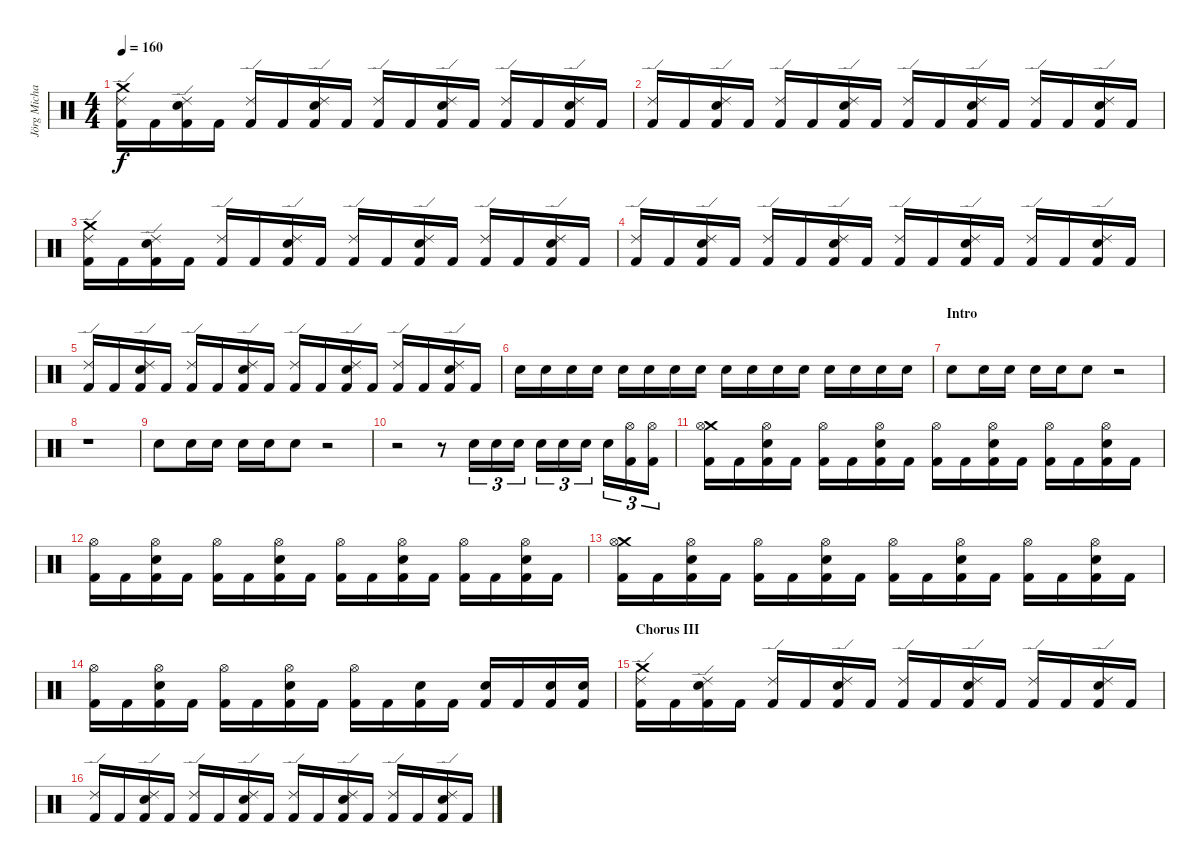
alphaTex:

\track ("Jörg Michael" "Jörg Micha") {instrument percussion}
\staff {score}
\articulation defaults
\ts (4 4)
\tempo 160
\clef neutral
\ks c
("Crash medium (hit)" "Ride (edge) 2" "Kick (hit) 2").16{dy f} "Kick (hit) 2".16 ("Electric Snare (hit)" "Ride (edge) 2" "Kick (hit) 2").16 "Kick (hit) 2".16 ("Ride (edge) 2" "Kick (hit) 2").16 "Kick (hit) 2".16 ("Electric Snare (hit)" "Ride (edge) 2" "Kick (hit) 2").16 "Kick (hit) 2".16 ("Ride (edge) 2" "Kick (hit) 2").16 "Kick (hit) 2".16 ("Electric Snare (hit)" "Ride (edge) 2" "Kick (hit) 2").16 "Kick (hit) 2".16 ("Ride (edge) 2" "Kick (hit) 2").16 "Kick (hit) 2".16 ("Electric Snare (hit)" "Ride (edge) 2" "Kick (hit) 2").16 "Kick (hit) 2".16 |
("Ride (edge) 2" "Kick (hit) 2").16 "Kick (hit) 2".16 ("Electric Snare (hit)" "Ride (edge) 2" "Kick (hit) 2").16 "Kick (hit) 2".16 ("Ride (edge) 2" "Kick (hit) 2").16 "Kick (hit) 2".16 ("Electric Snare (hit)" "Ride (edge) 2" "Kick (hit) 2").16 "Kick (hit) 2".16 ("Ride (edge) 2" "Kick (hit) 2").16 "Kick (hit) 2".16 ("Electric Snare (hit)" "Ride (edge) 2" "Kick (hit) 2").16 "Kick (hit) 2".16 ("Ride (edge) 2" "Kick (hit) 2").16 "Kick (hit) 2".16 ("Electric Snare (hit)" "Ride (edge) 2" "Kick (hit) 2").16 "Kick (hit) 2".16 |
("Crash medium (hit)" "Ride (edge) 2" "Kick (hit) 2").16 "Kick (hit) 2".16 ("Electric Snare (hit)" "Ride (edge) 2" "Kick (hit) 2").16 "Kick (hit) 2".16 ("Ride (edge) 2" "Kick (hit) 2").16 "Kick (hit) 2".16 ("Electric Snare (hit)" "Ride (edge) 2" "Kick (hit) 2").16 "Kick (hit) 2".16 ("Ride (edge) 2" "Kick (hit) 2").16 "Kick (hit) 2".16 ("Electric Snare (hit)" "Ride (edge) 2" "Kick (hit) 2").16 "Kick (hit) 2".16 ("Ride (edge) 2" "Kick (hit) 2").16 "Kick (hit) 2".16 ("Electric Snare (hit)" "Ride (edge) 2" "Kick (hit) 2").16 "Kick (hit) 2".16 |
("Ride (edge) 2" "Kick (hit) 2").16 "Kick (hit) 2".16 ("Electric Snare (hit)" "Ride (edge) 2" "Kick (hit) 2").16 "Kick (hit) 2".16 ("Ride (edge) 2" "Kick (hit) 2").16 "Kick (hit) 2".16 ("Electric Snare (hit)" "Ride (edge) 2" "Kick (hit) 2").16 "Kick (hit) 2".16 ("Ride (edge) 2" "Kick (hit) 2").16 "Kick (hit) 2".16 ("Electric Snare (hit)" "Ride (edge) 2" "Kick (hit) 2").16 "Kick (hit) 2".16 ("Ride (edge) 2" "Kick (hit) 2").16 "Kick (hit) 2".16 ("Electric Snare (hit)" "Ride (edge) 2" "Kick (hit) 2").16 "Kick (hit) 2".16 |
("Ride (edge) 2" "Kick (hit) 2").16 "Kick (hit) 2".16 ("Electric Snare (hit)" "Ride (edge) 2" "Kick (hit) 2").16 "Kick (hit) 2".16 ("Ride (edge) 2" "Kick (hit) 2").16 "Kick (hit) 2".16 ("Electric Snare (hit)" "Ride (edge) 2" "Kick (hit) 2").16 "Kick (hit) 2".16 ("Ride (edge) 2" "Kick (hit) 2").16 "Kick (hit) 2".16 ("Electric Snare (hit)" "Ride (edge) 2" "Kick (hit) 2").16 "Kick (hit) 2".16 ("Ride (edge) 2" "Kick (hit) 2").16 "Kick (hit) 2".16 ("Electric Snare (hit)" "Ride (edge) 2" "Kick (hit) 2").16 "Kick (hit) 2".16 |
"Electric Snare (hit)".16 "Electric Snare (hit)".16 "Electric Snare (hit)".16 "Electric Snare (hit)".16 "Electric Snare (hit)".16 "Electric Snare (hit)".16 "Electric Snare (hit)".16 "Electric Snare (hit)".16 "Electric Snare (hit)".16 "Electric Snare (hit)".16 "Electric Snare (hit)".16 "Electric Snare (hit)".16 "Electric Snare (hit)".16 "Electric Snare (hit)".16 "Electric Snare (hit)".16 "Electric Snare (hit)".16 |
\section ("" "Intro")
"Electric Snare (hit)".8 "Electric Snare (hit)".16 "Electric Snare (hit)".16 "Electric Snare (hit)".16 "Electric Snare (hit)".16 "Electric Snare (hit)".8 r.2 |
r.1 |
"Electric Snare (hit)".8 "Electric Snare (hit)".16 "Electric Snare (hit)".16 "Electric Snare (hit)".16 "Electric Snare (hit)".16 "Electric Snare (hit)".8 r.2 |
r.2 r.8 "Electric Snare (hit)".16{tu (3 2)} "Electric Snare (hit)".16{tu (3 2)} "Electric Snare (hit)".16{tu (3 2)} "Electric Snare (hit)".16{tu (3 2)} "Electric Snare (hit)".16{tu (3 2)} "Electric Snare (hit)".16{tu (3 2)} "Electric Snare (hit)".16{tu (3 2)} ("Kick (hit) 2" "Hi-Hat (open)").16{tu (3 2)} ("Kick (hit) 2" "Hi-Hat (open)").16{tu (3 2)} |
("Crash medium (hit)" "Hi-Hat (open)" "Kick (hit) 2").16 "Kick (hit) 2".16 ("Electric Snare (hit)" "Hi-Hat (open)" "Kick (hit) 2").16 "Kick (hit) 2".16 ("Hi-Hat (open)" "Kick (hit) 2").16 "Kick (hit) 2".16 ("Electric Snare (hit)" "Hi-Hat (open)" "Kick (hit) 2").16 "Kick (hit) 2".16 ("Hi-Hat (open)" "Kick (hit) 2").16 "Kick (hit) 2".16 ("Electric Snare (hit)" "Hi-Hat (open)" "Kick (hit) 2").16 "Kick (hit) 2".16 ("Hi-Hat (open)" "Kick (hit) 2").16 "Kick (hit) 2".16 ("Electric Snare (hit)" "Hi-Hat (open)" "Kick (hit) 2").16 "Kick (hit) 2".16 |
("Hi-Hat (open)" "Kick (hit) 2").16 "Kick (hit) 2".16 ("Electric Snare (hit)" "Hi-Hat (open)" "Kick (hit) 2").16 "Kick (hit) 2".16 ("Hi-Hat (open)" "Kick (hit) 2").16 "Kick (hit) 2".16 ("Electric Snare (hit)" "Hi-Hat (open)" "Kick (hit) 2").16 "Kick (hit) 2".16 ("Hi-Hat (open)" "Kick (hit) 2").16 "Kick (hit) 2".16 ("Electric Snare (hit)" "Hi-Hat (open)" "Kick (hit) 2").16 "Kick (hit) 2".16 ("Hi-Hat (open)" "Kick (hit) 2").16 "Kick (hit) 2".16 ("Electric Snare (hit)" "Hi-Hat (open)" "Kick (hit) 2").16 "Kick (hit) 2".16 |
("Crash medium (hit)" "Hi-Hat (open)" "Kick (hit) 2").16 "Kick (hit) 2".16 ("Electric Snare (hit)" "Hi-Hat (open)" "Kick (hit) 2").16 "Kick (hit) 2".16 ("Hi-Hat (open)" "Kick (hit) 2").16 "Kick (hit) 2".16 ("Electric Snare (hit)" "Hi-Hat (open)" "Kick (hit) 2").16 "Kick (hit) 2".16 ("Hi-Hat (open)" "Kick (hit) 2").16 "Kick (hit) 2".16 ("Electric Snare (hit)" "Hi-Hat (open)" "Kick (hit) 2").16 "Kick (hit) 2".16 ("Hi-Hat (open)" "Kick (hit) 2").16 "Kick (hit) 2".16 ("Electric Snare (hit)" "Hi-Hat (open)" "Kick (hit) 2").16 "Kick (hit) 2".16 |
("Hi-Hat (open)" "Kick (hit) 2").16 "Kick (hit) 2".16 ("Electric Snare (hit)" "Hi-Hat (open)" "Kick (hit) 2").16 "Kick (hit) 2".16 ("Hi-Hat (open)" "Kick (hit) 2").16 "Kick (hit) 2".16 ("Electric Snare (hit)" "Hi-Hat (open)" "Kick (hit) 2").16 "Kick (hit) 2".16 ("Hi-Hat (open)" "Kick (hit) 2").16 "Kick (hit) 2".16 ("Electric Snare (hit)" "Kick (hit) 2").16 "Kick (hit) 2".16 ("Electric Snare (hit)" "Kick (hit) 2").16 "Kick (hit) 2".16 ("Electric Snare (hit)" "Kick (hit) 2").16 ("Electric Snare (hit)" "Kick (hit) 2").16 |
\section ("" "Chorus III")
("Crash medium (hit)" "Ride (edge) 2" "Kick (hit) 2").16 "Kick (hit) 2".16 ("Electric Snare (hit)" "Ride (edge) 2" "Kick (hit) 2").16 "Kick (hit) 2".16 ("Ride (edge) 2" "Kick (hit) 2").16 "Kick (hit) 2".16 ("Electric Snare (hit)" "Ride (edge) 2" "Kick (hit) 2").16 "Kick (hit) 2".16 ("Ride (edge) 2" "Kick (hit) 2").16 "Kick (hit) 2".16 ("Electric Snare (hit)" "Ride (edge) 2" "Kick (hit) 2").16 "Kick (hit) 2".16 ("Ride (edge) 2" "Kick (hit) 2").16 "Kick (hit) 2".16 ("Electric Snare (hit)" "Ride (edge) 2" "Kick (hit) 2").16 "Kick (hit) 2".16 |
("Ride (edge) 2" "Kick (hit) 2").16 "Kick (hit) 2".16 ("Electric Snare (hit)" "Ride (edge) 2" "Kick (hit) 2").16 "Kick (hit) 2".16 ("Ride (edge) 2" "Kick (hit) 2").16 "Kick (hit) 2".16 ("Electric Snare (hit)" "Ride (edge) 2" "Kick (hit) 2").16 "Kick (hit) 2".16 ("Ride (edge) 2" "Kick (hit) 2").16 "Kick (hit) 2".16 ("Electric Snare (hit)" "Ride (edge) 2" "Kick (hit) 2").16 "Kick (hit) 2".16 ("Ride (edge) 2" "Kick (hit) 2").16 "Kick (hit) 2".16 ("Electric Snare (hit)" "Ride (edge) 2" "Kick (hit) 2").16 "Kick (hit) 2".16
